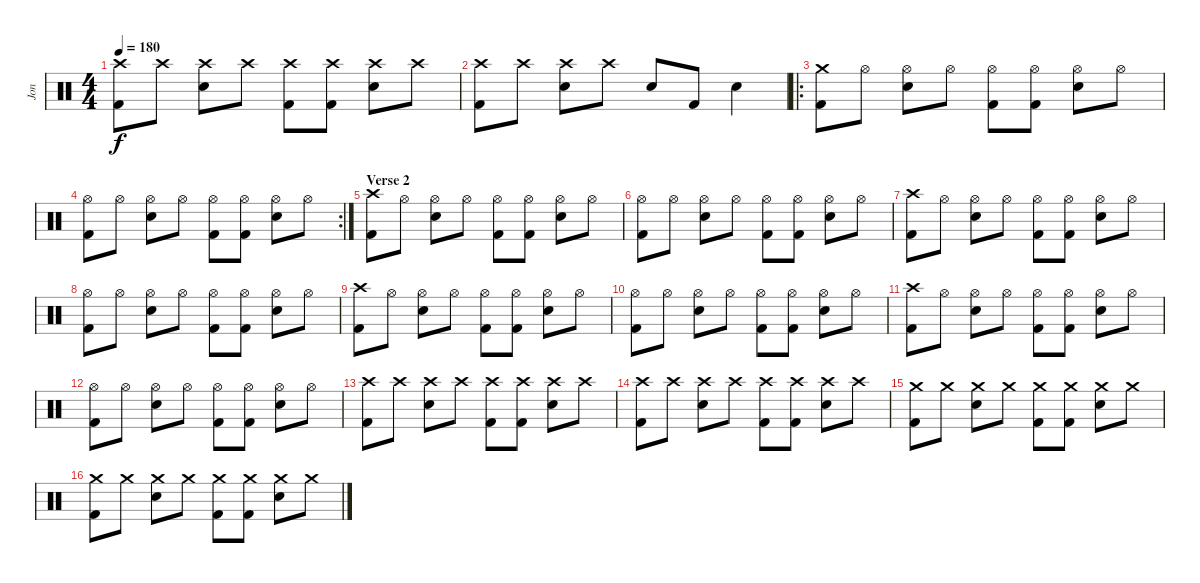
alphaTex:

\track ("Jon" "Jon") {instrument percussion}
\staff {score}
\articulation defaults
\ts (4 4)
\tempo 180
\clef neutral
\ks c
("Crash high (hit)" "Kick (hit) 2").8{dy f} "Crash high (hit)".8 ("Crash high (hit)" "Snare (hit) 2").8 "Crash high (hit)".8 ("Crash high (hit)" "Kick (hit) 2").8 ("Crash high (hit)" "Kick (hit) 2").8 ("Crash high (hit)" "Snare (hit) 2").8 "Crash high (hit)".8 |
("Crash high (hit)" "Kick (hit) 2").8 "Crash high (hit)".8 ("Crash high (hit)" "Snare (hit) 2").8 "Crash high (hit)".8 "Snare (hit) 2".8 "Kick (hit) 2".8 "Snare (hit) 2".4 |
\ro
("Crash medium (hit)" "Kick (hit) 2").8 "Hi-Hat (open)".8 ("Hi-Hat (open)" "Snare (hit) 2").8 "Hi-Hat (open)".8 ("Hi-Hat (open)" "Kick (hit) 2").8 ("Hi-Hat (open)" "Kick (hit) 2").8 ("Hi-Hat (open)" "Snare (hit) 2").8 "Hi-Hat (open)".8 |
\rc 2
("Hi-Hat (open)" "Kick (hit) 2").8 "Hi-Hat (open)".8 ("Hi-Hat (open)" "Snare (hit) 2").8 "Hi-Hat (open)".8 ("Hi-Hat (open)" "Kick (hit) 2").8 ("Hi-Hat (open)" "Kick (hit) 2").8 ("Hi-Hat (open)" "Snare (hit) 2").8 "Hi-Hat (open)".8 |
\section ("" "Verse 2")
("Crash high (hit)" "Kick (hit) 2").8 "Hi-Hat (open)".8 ("Hi-Hat (open)" "Snare (hit) 2").8 "Hi-Hat (open)".8 ("Hi-Hat (open)" "Kick (hit) 2").8 ("Hi-Hat (open)" "Kick (hit) 2").8 ("Hi-Hat (open)" "Snare (hit) 2").8 "Hi-Hat (open)".8 |
("Hi-Hat (open)" "Kick (hit) 2").8 "Hi-Hat (open)".8 ("Hi-Hat (open)" "Snare (hit) 2").8 "Hi-Hat (open)".8 ("Hi-Hat (open)" "Kick (hit) 2").8 ("Hi-Hat (open)" "Kick (hit) 2").8 ("Hi-Hat (open)" "Snare (hit) 2").8 "Hi-Hat (open)".8 |
("Crash high (hit)" "Kick (hit) 2").8 "Hi-Hat (open)".8 ("Hi-Hat (open)" "Snare (hit) 2").8 "Hi-Hat (open)".8 ("Hi-Hat (open)" "Kick (hit) 2").8 ("Hi-Hat (open)" "Kick (hit) 2").8 ("Hi-Hat (open)" "Snare (hit) 2").8 "Hi-Hat (open)".8 |
("Hi-Hat (open)" "Kick (hit) 2").8 "Hi-Hat (open)".8 ("Hi-Hat (open)" "Snare (hit) 2").8 "Hi-Hat (open)".8 ("Hi-Hat (open)" "Kick (hit) 2").8 ("Hi-Hat (open)" "Kick (hit) 2").8 ("Hi-Hat (open)" "Snare (hit) 2").8 "Hi-Hat (open)".8 |
("Crash high (hit)" "Kick (hit) 2").8 "Hi-Hat (open)".8 ("Hi-Hat (open)" "Snare (hit) 2").8 "Hi-Hat (open)".8 ("Hi-Hat (open)" "Kick (hit) 2").8 ("Hi-Hat (open)" "Kick (hit) 2").8 ("Hi-Hat (open)" "Snare (hit) 2").8 "Hi-Hat (open)".8 |
("Hi-Hat (open)" "Kick (hit) 2").8 "Hi-Hat (open)".8 ("Hi-Hat (open)" "Snare (hit) 2").8 "Hi-Hat (open)".8 ("Hi-Hat (open)" "Kick (hit) 2").8 ("Hi-Hat (open)" "Kick (hit) 2").8 ("Hi-Hat (open)" "Snare (hit) 2").8 "Hi-Hat (open)".8 |
("Crash high (hit)" "Kick (hit) 2").8 "Hi-Hat (open)".8 ("Hi-Hat (open)" "Snare (hit) 2").8 "Hi-Hat (open)".8 ("Hi-Hat (open)" "Kick (hit) 2").8 ("Hi-Hat (open)" "Kick (hit) 2").8 ("Hi-Hat (open)" "Snare (hit) 2").8 "Hi-Hat (open)".8 |
("Hi-Hat (open)" "Kick (hit) 2").8 "Hi-Hat (open)".8 ("Hi-Hat (open)" "Snare (hit) 2").8 "Hi-Hat (open)".8 ("Hi-Hat (open)" "Kick (hit) 2").8 ("Hi-Hat (open)" "Kick (hit) 2").8 ("Hi-Hat (open)" "Snare (hit) 2").8 "Hi-Hat (open)".8 |
("Crash high (hit)" "Kick (hit) 2").8 "Crash high (hit)".8 ("Crash high (hit)" "Snare (hit) 2").8 "Crash high (hit)".8 ("Crash high (hit)" "Kick (hit) 2").8 ("Crash high (hit)" "Kick (hit) 2").8 ("Crash high (hit)" "Snare (hit) 2").8 "Crash high (hit)".8 |
("Crash high (hit)" "Kick (hit) 2").8 "Crash high (hit)".8 ("Crash high (hit)" "Snare (hit) 2").8 "Crash high (hit)".8 ("Crash high (hit)" "Kick (hit) 2").8 ("Crash high (hit)" "Kick (hit) 2").8 ("Crash high (hit)" "Snare (hit) 2").8 "Crash high (hit)".8 |
("Crash medium (hit)" "Kick (hit) 2").8 "Crash medium (hit)".8 ("Crash medium (hit)" "Snare (hit) 2").8 "Crash medium (hit)".8 ("Crash medium (hit)" "Kick (hit) 2").8 ("Crash medium (hit)" "Kick (hit) 2").8 ("Crash medium (hit)" "Snare (hit) 2").8 "Crash medium (hit)".8 |
("Crash medium (hit)" "Kick (hit) 2").8 "Crash medium (hit)".8 ("Crash medium (hit)" "Snare (hit) 2").8 "Crash medium (hit)".8 ("Crash medium (hit)" "Kick (hit) 2").8 ("Crash medium (hit)" "Kick (hit) 2").8 ("Crash medium (hit)" "Snare (hit) 2").8 "Crash medium (hit)".8
